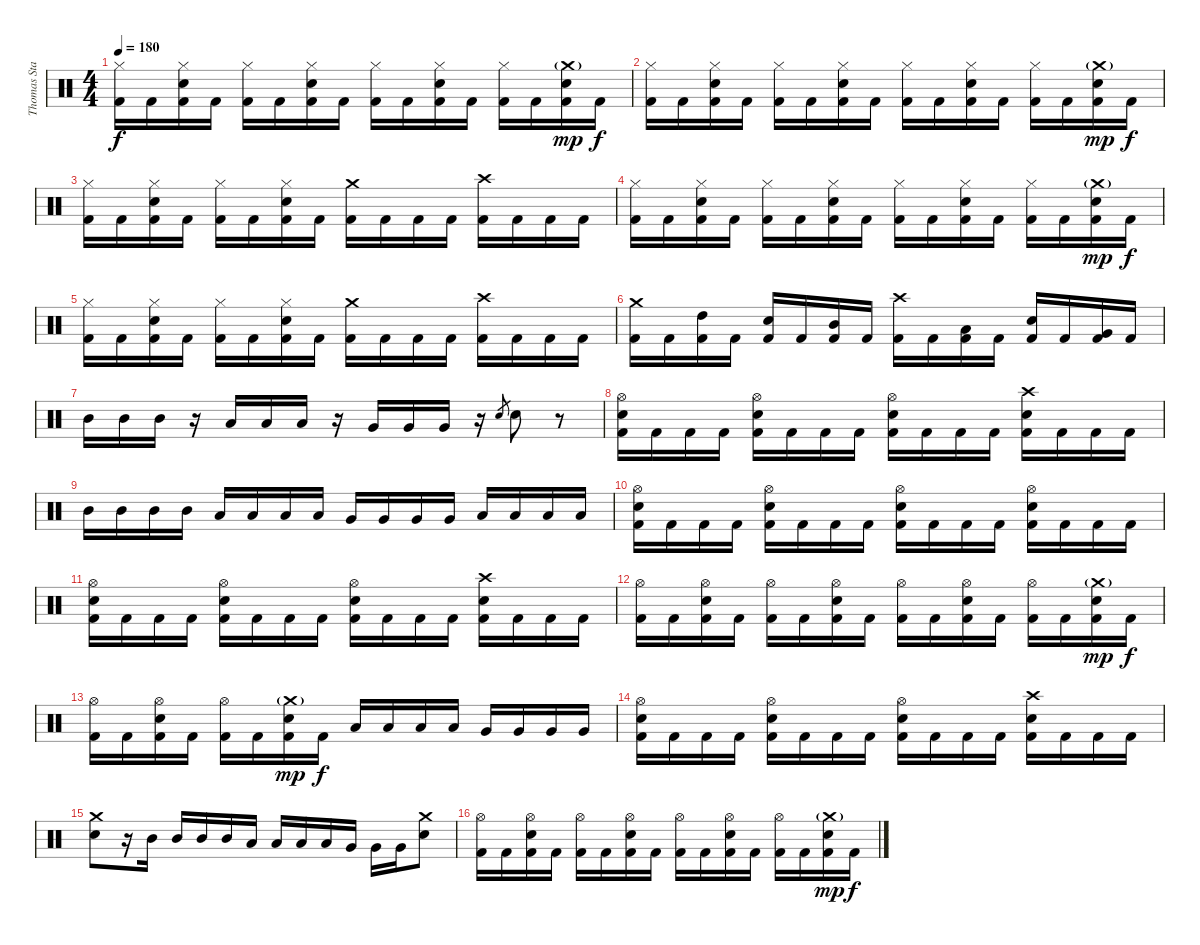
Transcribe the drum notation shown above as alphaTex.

\track ("Thomas Stauch" "Thomas Sta") {instrument percussion}
\staff {score}
\articulation defaults
\ts (4 4)
\tempo 180
\clef neutral
\ks c
("Hi-Hat (closed)" "Kick (hit) 2").16{dy f} "Kick (hit) 2".16 ("Hi-Hat (closed)" "Electric Snare (hit)" "Kick (hit) 2").16 "Kick (hit) 2".16 ("Hi-Hat (closed)" "Kick (hit) 2").16 "Kick (hit) 2".16 ("Hi-Hat (closed)" "Electric Snare (hit)" "Kick (hit) 2").16 "Kick (hit) 2".16 ("Hi-Hat (closed)" "Kick (hit) 2").16 "Kick (hit) 2".16 ("Hi-Hat (closed)" "Electric Snare (hit)" "Kick (hit) 2").16 "Kick (hit) 2".16 ("Hi-Hat (closed)" "Kick (hit) 2").16 "Kick (hit) 2".16 ("Crash medium (hit)"{g} "Electric Snare (hit)" "Kick (hit) 2").16{dy mp} "Kick (hit) 2".16{dy f} |
("Hi-Hat (closed)" "Kick (hit) 2").16 "Kick (hit) 2".16 ("Hi-Hat (closed)" "Electric Snare (hit)" "Kick (hit) 2").16 "Kick (hit) 2".16 ("Hi-Hat (closed)" "Kick (hit) 2").16 "Kick (hit) 2".16 ("Hi-Hat (closed)" "Electric Snare (hit)" "Kick (hit) 2").16 "Kick (hit) 2".16 ("Hi-Hat (closed)" "Kick (hit) 2").16 "Kick (hit) 2".16 ("Hi-Hat (closed)" "Electric Snare (hit)" "Kick (hit) 2").16 "Kick (hit) 2".16 ("Hi-Hat (closed)" "Kick (hit) 2").16 "Kick (hit) 2".16 ("Crash medium (hit)"{g} "Electric Snare (hit)" "Kick (hit) 2").16{dy mp} "Kick (hit) 2".16{dy f} |
("Hi-Hat (closed)" "Kick (hit) 2").16 "Kick (hit) 2".16 ("Hi-Hat (closed)" "Electric Snare (hit)" "Kick (hit) 2").16 "Kick (hit) 2".16 ("Hi-Hat (closed)" "Kick (hit) 2").16 "Kick (hit) 2".16 ("Hi-Hat (closed)" "Electric Snare (hit)" "Kick (hit) 2").16 "Kick (hit) 2".16 ("Crash medium (hit)" "Kick (hit) 2").16 "Kick (hit) 2".16 "Kick (hit) 2".16 "Kick (hit) 2".16 ("Crash high (hit)" "Kick (hit) 2").16 "Kick (hit) 2".16 "Kick (hit) 2".16 "Kick (hit) 2".16 |
("Hi-Hat (closed)" "Kick (hit) 2").16 "Kick (hit) 2".16 ("Hi-Hat (closed)" "Electric Snare (hit)" "Kick (hit) 2").16 "Kick (hit) 2".16 ("Hi-Hat (closed)" "Kick (hit) 2").16 "Kick (hit) 2".16 ("Hi-Hat (closed)" "Electric Snare (hit)" "Kick (hit) 2").16 "Kick (hit) 2".16 ("Hi-Hat (closed)" "Kick (hit) 2").16 "Kick (hit) 2".16 ("Hi-Hat (closed)" "Electric Snare (hit)" "Kick (hit) 2").16 "Kick (hit) 2".16 ("Hi-Hat (closed)" "Kick (hit) 2").16 "Kick (hit) 2".16 ("Crash medium (hit)"{g} "Electric Snare (hit)" "Kick (hit) 2").16{dy mp} "Kick (hit) 2".16{dy f} |
("Hi-Hat (closed)" "Kick (hit) 2").16 "Kick (hit) 2".16 ("Hi-Hat (closed)" "Electric Snare (hit)" "Kick (hit) 2").16 "Kick (hit) 2".16 ("Hi-Hat (closed)" "Kick (hit) 2").16 "Kick (hit) 2".16 ("Hi-Hat (closed)" "Electric Snare (hit)" "Kick (hit) 2").16 "Kick (hit) 2".16 ("Crash medium (hit)" "Kick (hit) 2").16 "Kick (hit) 2".16 "Kick (hit) 2".16 "Kick (hit) 2".16 ("Crash high (hit)" "Kick (hit) 2").16 "Kick (hit) 2".16 "Kick (hit) 2".16 "Kick (hit) 2".16 |
("Crash medium (hit)" "Kick (hit) 2").16 "Kick (hit) 2".16 ("High Tom (hit)" "Kick (hit) 2").16 "Kick (hit) 2".16 ("Electric Snare (hit)" "Kick (hit) 2").16 "Kick (hit) 2".16 ("Mid Tom (hit)" "Kick (hit) 2").16 "Kick (hit) 2".16 ("Crash high (hit)" "Kick (hit) 2").16 "Kick (hit) 2".16 ("Low Tom (hit)" "Kick (hit) 2").16 "Kick (hit) 2".16 ("Electric Snare (hit)" "Kick (hit) 2").16 "Kick (hit) 2".16 ("Very Low Tom (hit)" "Kick (hit) 2").16 "Kick (hit) 2".16 |
"Mid Tom (hit)".16 "Mid Tom (hit)".16 "Mid Tom (hit)".16 r.16 "Low Tom (hit)".16 "Low Tom (hit)".16 "Low Tom (hit)".16 r.16 "Very Low Tom (hit)".16 "Very Low Tom (hit)".16 "Very Low Tom (hit)".16 r.16 "Electric Snare (hit)".8{gr} "Electric Snare (hit)".8 r.8 |
("Hi-Hat (open)" "Electric Snare (hit)" "Kick (hit) 2").16 "Kick (hit) 2".16 "Kick (hit) 2".16 "Kick (hit) 2".16 ("Hi-Hat (open)" "Electric Snare (hit)" "Kick (hit) 2").16 "Kick (hit) 2".16 "Kick (hit) 2".16 "Kick (hit) 2".16 ("Hi-Hat (open)" "Electric Snare (hit)" "Kick (hit) 2").16 "Kick (hit) 2".16 "Kick (hit) 2".16 "Kick (hit) 2".16 ("Crash high (hit)" "Electric Snare (hit)" "Kick (hit) 2").16 "Kick (hit) 2".16 "Kick (hit) 2".16 "Kick (hit) 2".16 |
"Mid Tom (hit)".16 "Mid Tom (hit)".16 "Mid Tom (hit)".16 "Mid Tom (hit)".16 "Low Tom (hit)".16 "Low Tom (hit)".16 "Low Tom (hit)".16 "Low Tom (hit)".16 "Very Low Tom (hit)".16 "Very Low Tom (hit)".16 "Very Low Tom (hit)".16 "Very Low Tom (hit)".16 "Low Floor Tom (hit)".16 "Low Floor Tom (hit)".16 "Low Floor Tom (hit)".16 "Low Floor Tom (hit)".16 |
("Hi-Hat (open)" "Electric Snare (hit)" "Kick (hit) 2").16 "Kick (hit) 2".16 "Kick (hit) 2".16 "Kick (hit) 2".16 ("Hi-Hat (open)" "Electric Snare (hit)" "Kick (hit) 2").16 "Kick (hit) 2".16 "Kick (hit) 2".16 "Kick (hit) 2".16 ("Hi-Hat (open)" "Electric Snare (hit)" "Kick (hit) 2").16 "Kick (hit) 2".16 "Kick (hit) 2".16 "Kick (hit) 2".16 ("Hi-Hat (open)" "Electric Snare (hit)" "Kick (hit) 2").16 "Kick (hit) 2".16 "Kick (hit) 2".16 "Kick (hit) 2".16 |
("Hi-Hat (open)" "Electric Snare (hit)" "Kick (hit) 2").16 "Kick (hit) 2".16 "Kick (hit) 2".16 "Kick (hit) 2".16 ("Hi-Hat (open)" "Electric Snare (hit)" "Kick (hit) 2").16 "Kick (hit) 2".16 "Kick (hit) 2".16 "Kick (hit) 2".16 ("Hi-Hat (open)" "Electric Snare (hit)" "Kick (hit) 2").16 "Kick (hit) 2".16 "Kick (hit) 2".16 "Kick (hit) 2".16 ("Crash high (hit)" "Electric Snare (hit)" "Kick (hit) 2").16 "Kick (hit) 2".16 "Kick (hit) 2".16 "Kick (hit) 2".16 |
("Hi-Hat (open)" "Kick (hit) 2").16 "Kick (hit) 2".16 ("Hi-Hat (open)" "Electric Snare (hit)" "Kick (hit) 2").16 "Kick (hit) 2".16 ("Hi-Hat (open)" "Kick (hit) 2").16 "Kick (hit) 2".16 ("Hi-Hat (open)" "Electric Snare (hit)" "Kick (hit) 2").16 "Kick (hit) 2".16 ("Hi-Hat (open)" "Kick (hit) 2").16 "Kick (hit) 2".16 ("Hi-Hat (open)" "Electric Snare (hit)" "Kick (hit) 2").16 "Kick (hit) 2".16 ("Hi-Hat (open)" "Kick (hit) 2").16 "Kick (hit) 2".16 ("Crash medium (hit)"{g} "Electric Snare (hit)" "Kick (hit) 2").16{dy mp} "Kick (hit) 2".16{dy f} |
("Hi-Hat (open)" "Kick (hit) 2").16 "Kick (hit) 2".16 ("Hi-Hat (open)" "Electric Snare (hit)" "Kick (hit) 2").16 "Kick (hit) 2".16 ("Hi-Hat (open)" "Kick (hit) 2").16 "Kick (hit) 2".16 ("Crash medium (hit)"{g} "Electric Snare (hit)" "Kick (hit) 2").16{dy mp} "Kick (hit) 2".16{dy f} "Low Tom (hit)".16 "Low Tom (hit)".16 "Low Tom (hit)".16 "Low Tom (hit)".16 "Very Low Tom (hit)".16 "Very Low Tom (hit)".16 "Very Low Tom (hit)".16 "Very Low Tom (hit)".16 |
("Hi-Hat (open)" "Electric Snare (hit)" "Kick (hit) 2").16 "Kick (hit) 2".16 "Kick (hit) 2".16 "Kick (hit) 2".16 ("Hi-Hat (open)" "Electric Snare (hit)" "Kick (hit) 2").16 "Kick (hit) 2".16 "Kick (hit) 2".16 "Kick (hit) 2".16 ("Hi-Hat (open)" "Electric Snare (hit)" "Kick (hit) 2").16 "Kick (hit) 2".16 "Kick (hit) 2".16 "Kick (hit) 2".16 ("Crash high (hit)" "Electric Snare (hit)" "Kick (hit) 2").16 "Kick (hit) 2".16 "Kick (hit) 2".16 "Kick (hit) 2".16 |
("Crash medium (hit)" "Electric Snare (hit)").8 r.16 "Mid Tom (hit)".16 "Mid Tom (hit)".16 "Mid Tom (hit)".16 "Mid Tom (hit)".16 "Low Tom (hit)".16 "Low Tom (hit)".16 "Low Tom (hit)".16 "Low Tom (hit)".16 "Very Low Tom (hit)".16 "Very Low Tom (hit)".16 "Very Low Tom (hit)".16 ("Crash medium (hit)" "Electric Snare (hit)").8 |
("Hi-Hat (open)" "Kick (hit) 2").16 "Kick (hit) 2".16 ("Hi-Hat (open)" "Electric Snare (hit)" "Kick (hit) 2").16 "Kick (hit) 2".16 ("Hi-Hat (open)" "Kick (hit) 2").16 "Kick (hit) 2".16 ("Hi-Hat (open)" "Electric Snare (hit)" "Kick (hit) 2").16 "Kick (hit) 2".16 ("Hi-Hat (open)" "Kick (hit) 2").16 "Kick (hit) 2".16 ("Hi-Hat (open)" "Electric Snare (hit)" "Kick (hit) 2").16 "Kick (hit) 2".16 ("Hi-Hat (open)" "Kick (hit) 2").16 "Kick (hit) 2".16 ("Crash medium (hit)"{g} "Electric Snare (hit)" "Kick (hit) 2").16{dy mp} "Kick (hit) 2".16{dy f}
